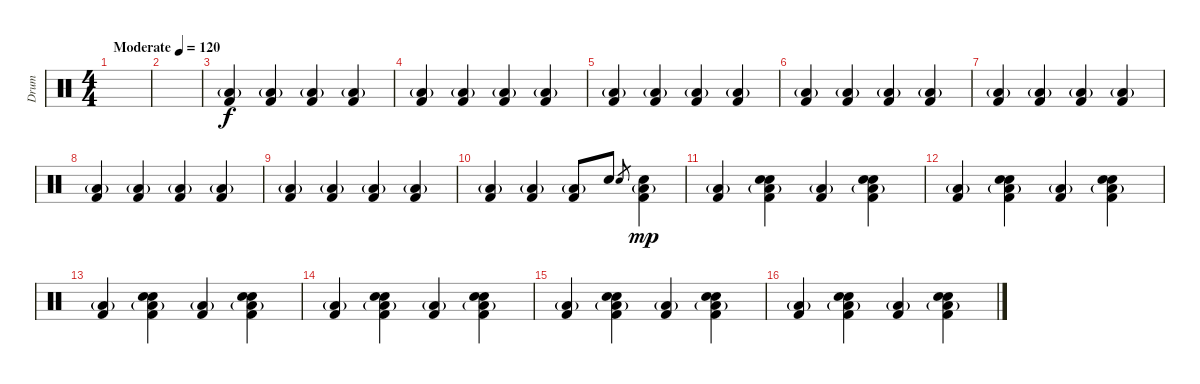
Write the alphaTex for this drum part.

\track ("Drum" "Drum") {instrument percussion}
\staff {score}
\articulation defaults
\ts (4 4)
\tempo (120 "Moderate")
\clef neutral
\ks c
|
|
("Low Tom (hit)"{g} "Kick (hit) 2").4 ("Low Tom (hit)"{g} "Kick (hit) 2").4 ("Low Tom (hit)"{g} "Kick (hit) 2").4 ("Low Tom (hit)"{g} "Kick (hit) 2").4 |
("Low Tom (hit)"{g} "Kick (hit) 2").4 ("Low Tom (hit)"{g} "Kick (hit) 2").4 ("Low Tom (hit)"{g} "Kick (hit) 2").4 ("Low Tom (hit)"{g} "Kick (hit) 2").4 |
("Low Tom (hit)"{g} "Kick (hit) 2").4 ("Low Tom (hit)"{g} "Kick (hit) 2").4 ("Low Tom (hit)"{g} "Kick (hit) 2").4 ("Low Tom (hit)"{g} "Kick (hit) 2").4 |
("Low Tom (hit)"{g} "Kick (hit) 2").4 ("Low Tom (hit)"{g} "Kick (hit) 2").4 ("Low Tom (hit)"{g} "Kick (hit) 2").4 ("Low Tom (hit)"{g} "Kick (hit) 2").4 |
("Low Tom (hit)"{g} "Kick (hit) 2").4 ("Low Tom (hit)"{g} "Kick (hit) 2").4 ("Low Tom (hit)"{g} "Kick (hit) 2").4 ("Low Tom (hit)"{g} "Kick (hit) 2").4 |
("Low Tom (hit)"{g} "Kick (hit) 2").4 ("Low Tom (hit)"{g} "Kick (hit) 2").4 ("Low Tom (hit)"{g} "Kick (hit) 2").4 ("Low Tom (hit)"{g} "Kick (hit) 2").4 |
("Low Tom (hit)"{g} "Kick (hit) 2").4 ("Low Tom (hit)"{g} "Kick (hit) 2").4 ("Low Tom (hit)"{g} "Kick (hit) 2").4 ("Low Tom (hit)"{g} "Kick (hit) 2").4 |
("Low Tom (hit)"{g} "Kick (hit) 2").4 ("Low Tom (hit)"{g} "Kick (hit) 2").4 ("Low Tom (hit)"{g} "Kick (hit) 2").8 "Snare (hit) 2".8{dy f} "Snare (hit) 2".8{gr} ("Snare (hit) 2" "Low Tom (hit)"{g} "Kick (hit) 2").4{dy mp} |
("Low Tom (hit)"{g} "Kick (hit) 2").4{volume 16} ("Hand Clap (hit)" "Snare (hit) 2" "Low Tom (hit)"{g} "Kick (hit) 2").4 ("Low Tom (hit)"{g} "Kick (hit) 2").4 ("Hand Clap (hit)" "Snare (hit) 2" "Low Tom (hit)"{g} "Kick (hit) 2").4 |
("Low Tom (hit)"{g} "Kick (hit) 2").4 ("Hand Clap (hit)" "Snare (hit) 2" "Low Tom (hit)"{g} "Kick (hit) 2").4 ("Low Tom (hit)"{g} "Kick (hit) 2").4 ("Hand Clap (hit)" "Snare (hit) 2" "Low Tom (hit)"{g} "Kick (hit) 2").4 |
("Low Tom (hit)"{g} "Kick (hit) 2").4 ("Hand Clap (hit)" "Snare (hit) 2" "Low Tom (hit)"{g} "Kick (hit) 2").4 ("Low Tom (hit)"{g} "Kick (hit) 2").4 ("Hand Clap (hit)" "Snare (hit) 2" "Low Tom (hit)"{g} "Kick (hit) 2").4 |
("Low Tom (hit)"{g} "Kick (hit) 2").4 ("Hand Clap (hit)" "Snare (hit) 2" "Low Tom (hit)"{g} "Kick (hit) 2").4 ("Low Tom (hit)"{g} "Kick (hit) 2").4 ("Hand Clap (hit)" "Snare (hit) 2" "Low Tom (hit)"{g} "Kick (hit) 2").4 |
("Low Tom (hit)"{g} "Kick (hit) 2").4 ("Hand Clap (hit)" "Snare (hit) 2" "Low Tom (hit)"{g} "Kick (hit) 2").4 ("Low Tom (hit)"{g} "Kick (hit) 2").4 ("Hand Clap (hit)" "Snare (hit) 2" "Low Tom (hit)"{g} "Kick (hit) 2").4 |
("Low Tom (hit)"{g} "Kick (hit) 2").4 ("Hand Clap (hit)" "Snare (hit) 2" "Low Tom (hit)"{g} "Kick (hit) 2").4 ("Low Tom (hit)"{g} "Kick (hit) 2").4 ("Hand Clap (hit)" "Snare (hit) 2" "Low Tom (hit)"{g} "Kick (hit) 2").4
